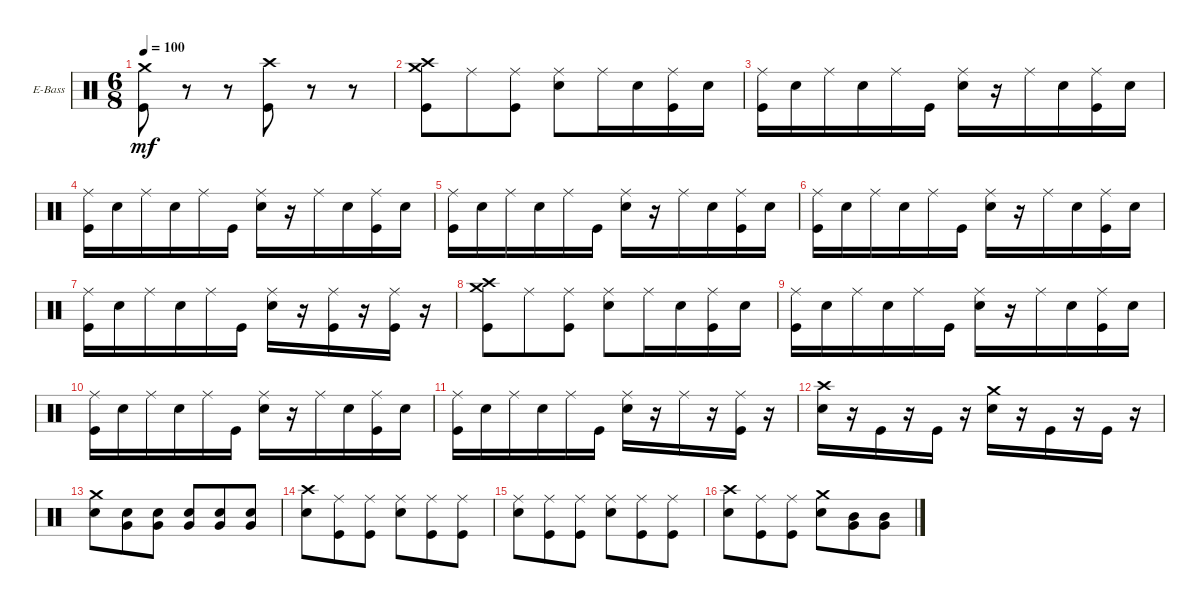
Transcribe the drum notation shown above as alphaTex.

\defaultSystemsLayout 4
\bracketExtendMode groupsimilarinstruments
\firstSystemTrackNameOrientation horizontal
\otherSystemsTrackNameOrientation horizontal
\track ("Drums" "E-Bass") {instrument percussion}
\staff {score}
\articulation defaults
\ts (6 8)
\tempo 100
\clef neutral
\ks c
("Kick (hit)" "Crash medium (hit)").8{dy mf} r.8 r.8 ("Kick (hit)" "Crash high (hit)").8 r.8 r.8 |
("Kick (hit)" "Crash medium (hit)" "Crash high (hit)").8 "Ride (middle)".8 ("Ride (middle)" "Kick (hit)").8 ("Ride (middle)" "Snare (hit) 2").8 "Ride (middle)".16 "Snare (hit) 2".16 ("Ride (middle)" "Kick (hit)").16 "Snare (hit) 2".16 |
("Ride (middle)" "Kick (hit)").16 "Snare (hit) 2".16 "Ride (middle)".16 "Snare (hit) 2".16 "Ride (middle)".16 "Kick (hit)".16 ("Snare (hit) 2" "Ride (middle)").16 r.16 "Ride (middle)".16 "Snare (hit) 2".16 ("Ride (middle)" "Kick (hit)").16 "Snare (hit) 2".16 |
("Ride (middle)" "Kick (hit)").16 "Snare (hit) 2".16 "Ride (middle)".16 "Snare (hit) 2".16 "Ride (middle)".16 "Kick (hit)".16 ("Ride (middle)" "Snare (hit) 2").16 r.16 "Ride (middle)".16 "Snare (hit) 2".16 ("Ride (middle)" "Kick (hit)").16 "Snare (hit) 2".16 |
("Ride (middle)" "Kick (hit)").16 "Snare (hit) 2".16 "Ride (middle)".16 "Snare (hit) 2".16 "Ride (middle)".16 "Kick (hit)".16 ("Ride (middle)" "Snare (hit) 2").16 r.16 "Ride (middle)".16 "Snare (hit) 2".16 ("Ride (middle)" "Kick (hit)").16 "Snare (hit) 2".16 |
("Kick (hit)" "Ride (middle)").16 "Snare (hit) 2".16 "Ride (middle)".16 "Snare (hit) 2".16 "Ride (middle)".16 "Kick (hit)".16 ("Ride (middle)" "Snare (hit) 2").16 r.16 "Ride (middle)".16 "Snare (hit) 2".16 ("Ride (middle)" "Kick (hit)").16 "Snare (hit) 2".16 |
("Ride (middle)" "Kick (hit)").16 "Snare (hit) 2".16 "Ride (middle)".16 "Snare (hit) 2".16 "Ride (middle)".16 "Kick (hit)".16 ("Ride (middle)" "Snare (hit) 2").16 r.16 ("Ride (middle)" "Kick (hit)").16 r.16 ("Ride (middle)" "Kick (hit)").16 r.16 |
("Kick (hit)" "Crash medium (hit)" "Crash high (hit)").8 "Ride (middle)".8 ("Ride (middle)" "Kick (hit)").8 ("Ride (middle)" "Snare (hit) 2").8 "Ride (middle)".16 "Snare (hit) 2".16 ("Ride (middle)" "Kick (hit)").16 "Snare (hit) 2".16 |
("Ride (middle)" "Kick (hit)").16 "Snare (hit) 2".16 "Ride (middle)".16 "Snare (hit) 2".16 "Ride (middle)".16 "Kick (hit)".16 ("Snare (hit) 2" "Ride (middle)").16 r.16 "Ride (middle)".16 "Snare (hit) 2".16 ("Ride (middle)" "Kick (hit)").16 "Snare (hit) 2".16 |
("Ride (middle)" "Kick (hit)").16 "Snare (hit) 2".16 "Ride (middle)".16 "Snare (hit) 2".16 "Ride (middle)".16 "Kick (hit)".16 ("Ride (middle)" "Snare (hit) 2").16 r.16 "Ride (middle)".16 "Snare (hit) 2".16 ("Ride (middle)" "Kick (hit)").16 "Snare (hit) 2".16 |
("Ride (middle)" "Kick (hit)").16 "Snare (hit) 2".16 "Ride (middle)".16 "Snare (hit) 2".16 "Ride (middle)".16 "Kick (hit)".16 ("Ride (middle)" "Snare (hit) 2").16 r.16 "Ride (middle)".16 r.16 ("Ride (middle)" "Kick (hit)").16 r.16 |
("Snare (hit) 2" "Crash high (hit)").16 r.16 "Kick (hit)".16 r.16 "Kick (hit)".16 r.16 ("Snare (hit) 2" "Crash medium (hit)").16 r.16 "Kick (hit)".16 r.16 "Kick (hit)".16 r.16 |
("Snare (hit) 2" "Crash medium (hit)").8 ("Snare (hit) 2" "Very Low Tom (hit)").8 ("Snare (hit) 2" "Very Low Tom (hit)").8 ("Snare (hit) 2" "Very Low Tom (hit)").8 ("Snare (hit) 2" "Very Low Tom (hit)").8 ("Snare (hit) 2" "Very Low Tom (hit)").8 |
("Snare (hit) 2" "Crash high (hit)").8 ("Kick (hit)" "Ride (middle)").8 ("Kick (hit)" "Ride (middle)").8 ("Snare (hit) 2" "Ride (middle)").8 ("Kick (hit)" "Ride (middle)").8 ("Kick (hit)" "Ride (middle)").8 |
("Snare (hit) 2" "Ride (middle)").8 ("Kick (hit)" "Ride (middle)").8 ("Kick (hit)" "Ride (middle)").8 ("Snare (hit) 2" "Ride (middle)").8 ("Kick (hit)" "Ride (middle)").8 ("Kick (hit)" "Ride (middle)").8 |
("Snare (hit) 2" "Crash high (hit)").8 ("Kick (hit)" "Ride (middle)").8 ("Kick (hit)" "Ride (middle)").8 ("Snare (hit) 2" "Crash medium (hit)").8 ("Very Low Tom (hit)" "Mid Tom (hit)").8 ("Very Low Tom (hit)" "Mid Tom (hit)").8
